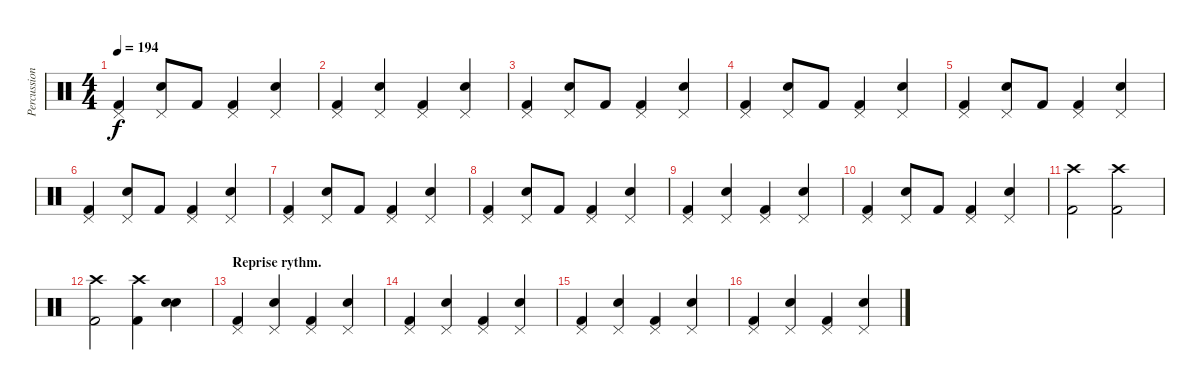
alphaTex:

\track ("Percussions" "Percussion") {instrument percussion}
\staff {score}
\articulation defaults
\ts (4 4)
\tempo 194
\clef neutral
\ks c
("Pedal Hi-Hat (hit)" "Kick (hit) 2").4{dy f} ("Pedal Hi-Hat (hit)" "Snare (hit) 2").8 "Kick (hit) 2".8 ("Pedal Hi-Hat (hit)" "Kick (hit) 2").4 ("Pedal Hi-Hat (hit)" "Snare (hit) 2").4 |
("Pedal Hi-Hat (hit)" "Kick (hit) 2").4 ("Pedal Hi-Hat (hit)" "Snare (hit) 2").4 ("Pedal Hi-Hat (hit)" "Kick (hit) 2").4 ("Pedal Hi-Hat (hit)" "Snare (hit) 2").4 |
("Pedal Hi-Hat (hit)" "Kick (hit) 2").4 ("Pedal Hi-Hat (hit)" "Snare (hit) 2").8 "Kick (hit) 2".8 ("Pedal Hi-Hat (hit)" "Kick (hit) 2").4 ("Pedal Hi-Hat (hit)" "Snare (hit) 2").4 |
("Pedal Hi-Hat (hit)" "Kick (hit) 2").4 ("Pedal Hi-Hat (hit)" "Snare (hit) 2").8 "Kick (hit) 2".8 ("Pedal Hi-Hat (hit)" "Kick (hit) 2").4 ("Pedal Hi-Hat (hit)" "Snare (hit) 2").4 |
("Pedal Hi-Hat (hit)" "Kick (hit) 2").4 ("Pedal Hi-Hat (hit)" "Snare (hit) 2").8 "Kick (hit) 2".8 ("Pedal Hi-Hat (hit)" "Kick (hit) 2").4 ("Pedal Hi-Hat (hit)" "Snare (hit) 2").4 |
("Pedal Hi-Hat (hit)" "Kick (hit) 2").4 ("Pedal Hi-Hat (hit)" "Snare (hit) 2").8 "Kick (hit) 2".8 ("Pedal Hi-Hat (hit)" "Kick (hit) 2").4 ("Pedal Hi-Hat (hit)" "Snare (hit) 2").4 |
("Pedal Hi-Hat (hit)" "Kick (hit) 2").4 ("Pedal Hi-Hat (hit)" "Snare (hit) 2").8 "Kick (hit) 2".8 ("Pedal Hi-Hat (hit)" "Kick (hit) 2").4 ("Pedal Hi-Hat (hit)" "Snare (hit) 2").4 |
("Pedal Hi-Hat (hit)" "Kick (hit) 2").4 ("Pedal Hi-Hat (hit)" "Snare (hit) 2").8 "Kick (hit) 2".8 ("Pedal Hi-Hat (hit)" "Kick (hit) 2").4 ("Pedal Hi-Hat (hit)" "Snare (hit) 2").4 |
("Pedal Hi-Hat (hit)" "Kick (hit) 2").4 ("Pedal Hi-Hat (hit)" "Snare (hit) 2").4 ("Pedal Hi-Hat (hit)" "Kick (hit) 2").4 ("Pedal Hi-Hat (hit)" "Snare (hit) 2").4 |
("Pedal Hi-Hat (hit)" "Kick (hit) 2").4 ("Pedal Hi-Hat (hit)" "Snare (hit) 2").8 "Kick (hit) 2".8 ("Pedal Hi-Hat (hit)" "Kick (hit) 2").4 ("Pedal Hi-Hat (hit)" "Snare (hit) 2").4 |
("Crash high (hit)" "Kick (hit) 2").2 ("Crash high (hit)" "Kick (hit) 2").2 |
("Crash high (hit)" "Kick (hit) 2").2 ("Crash high (hit)" "Kick (hit) 2").4 ("Snare (hit) 2" "Snare (hit) 2").4 |
\section ("" "Reprise rythm.")
("Pedal Hi-Hat (hit)" "Kick (hit) 2").4 ("Pedal Hi-Hat (hit)" "Snare (hit) 2").4 ("Pedal Hi-Hat (hit)" "Kick (hit) 2").4 ("Pedal Hi-Hat (hit)" "Snare (hit) 2").4 |
("Pedal Hi-Hat (hit)" "Kick (hit) 2").4 ("Pedal Hi-Hat (hit)" "Snare (hit) 2").4 ("Pedal Hi-Hat (hit)" "Kick (hit) 2").4 ("Pedal Hi-Hat (hit)" "Snare (hit) 2").4 |
("Pedal Hi-Hat (hit)" "Kick (hit) 2").4 ("Pedal Hi-Hat (hit)" "Snare (hit) 2").4 ("Pedal Hi-Hat (hit)" "Kick (hit) 2").4 ("Pedal Hi-Hat (hit)" "Snare (hit) 2").4 |
("Pedal Hi-Hat (hit)" "Kick (hit) 2").4 ("Pedal Hi-Hat (hit)" "Snare (hit) 2").4 ("Pedal Hi-Hat (hit)" "Kick (hit) 2").4 ("Pedal Hi-Hat (hit)" "Snare (hit) 2").4
